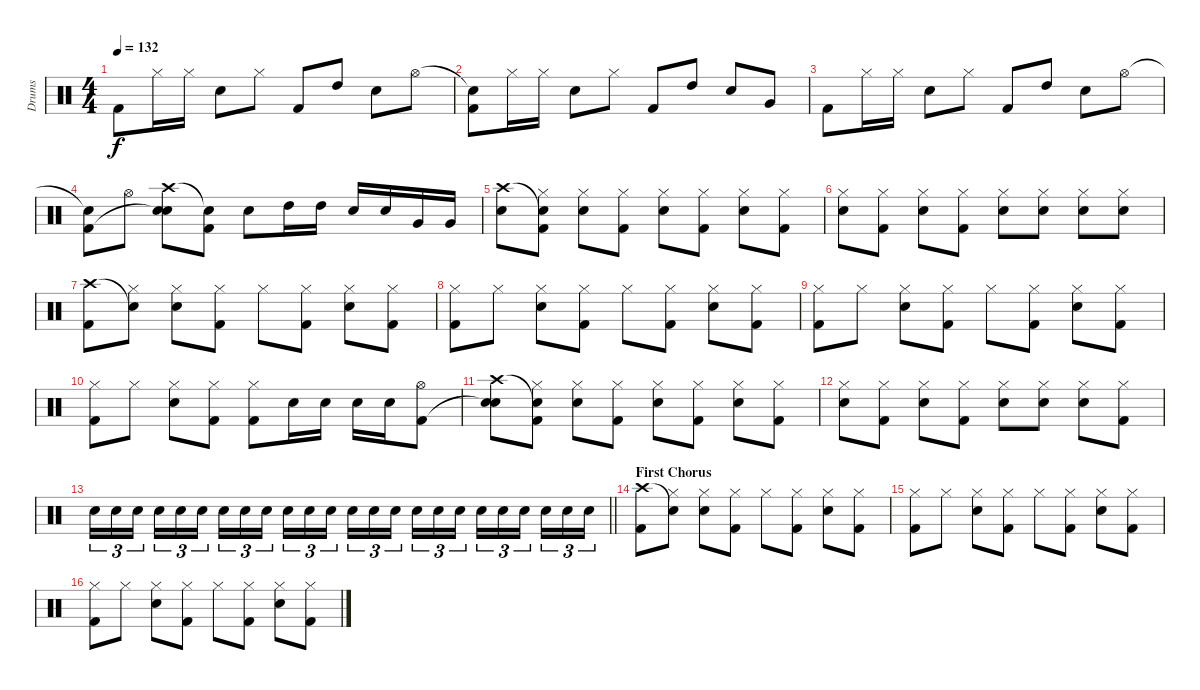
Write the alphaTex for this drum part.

\track ("Drums" "Drums") {instrument percussion}
\staff {score}
\articulation defaults
\ts (4 4)
\tempo 132
\clef neutral
\ks c "Kick (hit) 2".8{dy f} "Hi-Hat (closed)".16 "Hi-Hat (closed)".16 "Snare (hit) 2".8 "Hi-Hat (closed)".8 "Kick (hit) 2".8 "High Tom (hit)".8 "Snare (hit) 2".8 "Hi-Hat (open)".8
|
("Snare (hit)"{t} "Kick (hit) 2").8 "Hi-Hat (closed)".16 "Hi-Hat (closed)".16 "Snare (hit) 2".8 "Hi-Hat (closed)".8 "Kick (hit) 2".8 "High Tom (hit)".8 "Snare (hit) 2".8 "Very Low Tom (hit)".8 |
"Kick (hit) 2".8 "Hi-Hat (closed)".16 "Hi-Hat (closed)".16 "Snare (hit) 2".8 "Hi-Hat (closed)".8 "Kick (hit) 2".8 "High Tom (hit)".8 "Snare (hit) 2".8 "Hi-Hat (open)".8 |
("Snare (hit)"{t} "Kick (hit) 2").8 "Hi-Hat (open)".8 ("Crash high (hit)" "Snare (hit)"{t} "Snare (hit) 2").8 ("Snare (hit)"{t} "Kick (hit) 2").8 "Snare (hit) 2".8 "High Tom (hit)".16 "High Tom (hit)".16 "Snare (hit) 2".16 "Snare (hit) 2".16 "Very Low Tom (hit)".16 "Very Low Tom (hit)".16 |
("Crash high (hit)" "Snare (hit) 2").8 ("Snare (hit)"{t} "Hi-Hat (closed)" "Kick (hit) 2").8 ("Hi-Hat (closed)" "Snare (hit) 2").8 ("Hi-Hat (closed)" "Kick (hit) 2").8 ("Hi-Hat (closed)" "Snare (hit) 2").8 ("Hi-Hat (closed)" "Kick (hit) 2").8 ("Hi-Hat (closed)" "Snare (hit) 2").8 ("Hi-Hat (closed)" "Kick (hit) 2").8 |
("Hi-Hat (closed)" "Snare (hit) 2").8 ("Hi-Hat (closed)" "Kick (hit) 2").8 ("Hi-Hat (closed)" "Snare (hit) 2").8 ("Hi-Hat (closed)" "Kick (hit) 2").8 ("Hi-Hat (closed)" "Snare (hit) 2").8 ("Hi-Hat (closed)" "Snare (hit) 2").8 ("Hi-Hat (closed)" "Snare (hit) 2").8 ("Hi-Hat (closed)" "Snare (hit) 2").8 |
("Crash high (hit)" "Kick (hit) 2").8 ("Snare (hit)"{t} "Hi-Hat (closed)").8 ("Hi-Hat (closed)" "Snare (hit) 2").8 ("Hi-Hat (closed)" "Kick (hit) 2").8 "Hi-Hat (closed)".8 ("Hi-Hat (closed)" "Kick (hit) 2").8 ("Hi-Hat (closed)" "Snare (hit) 2").8 ("Hi-Hat (closed)" "Kick (hit) 2").8 |
("Hi-Hat (closed)" "Kick (hit) 2").8 "Hi-Hat (closed)".8 ("Hi-Hat (closed)" "Snare (hit) 2").8 ("Hi-Hat (closed)" "Kick (hit) 2").8 "Hi-Hat (closed)".8 ("Hi-Hat (closed)" "Kick (hit) 2").8 ("Hi-Hat (closed)" "Snare (hit) 2").8 ("Hi-Hat (closed)" "Kick (hit) 2").8 |
("Hi-Hat (closed)" "Kick (hit) 2").8 "Hi-Hat (closed)".8 ("Hi-Hat (closed)" "Snare (hit) 2").8 ("Hi-Hat (closed)" "Kick (hit) 2").8 "Hi-Hat (closed)".8 ("Hi-Hat (closed)" "Kick (hit) 2").8 ("Hi-Hat (closed)" "Snare (hit) 2").8 ("Hi-Hat (closed)" "Kick (hit) 2").8 |
("Hi-Hat (closed)" "Kick (hit) 2").8 "Hi-Hat (closed)".8 ("Hi-Hat (closed)" "Snare (hit) 2").8 ("Hi-Hat (closed)" "Kick (hit) 2").8 ("Hi-Hat (closed)" "Kick (hit) 2").8 "Snare (hit) 2".16 "Snare (hit) 2".16 "Snare (hit) 2".16 "Snare (hit) 2".16 ("Hi-Hat (open)" "Kick (hit) 2").8 |
("Crash high (hit)" "Snare (hit)"{t} "Snare (hit) 2").8 ("Snare (hit)"{t} "Hi-Hat (closed)" "Kick (hit) 2").8 ("Hi-Hat (closed)" "Snare (hit) 2").8 ("Hi-Hat (closed)" "Kick (hit) 2").8 ("Hi-Hat (closed)" "Snare (hit) 2").8 ("Hi-Hat (closed)" "Kick (hit) 2").8 ("Hi-Hat (closed)" "Snare (hit) 2").8 ("Hi-Hat (closed)" "Kick (hit) 2").8 |
("Hi-Hat (closed)" "Snare (hit) 2").8 ("Hi-Hat (closed)" "Kick (hit) 2").8 ("Hi-Hat (closed)" "Snare (hit) 2").8 ("Hi-Hat (closed)" "Kick (hit) 2").8 ("Hi-Hat (closed)" "Snare (hit) 2").8 ("Hi-Hat (closed)" "Snare (hit) 2").8 ("Hi-Hat (closed)" "Snare (hit) 2").8 ("Hi-Hat (closed)" "Kick (hit) 2").8 |
\barLineRight lightlight "Snare (hit) 2".16{tu (3 2)} "Snare (hit) 2".16{tu (3 2)} "Snare (hit) 2".16{tu (3 2) beam splitsecondary} "Snare (hit) 2".16{tu (3 2)} "Snare (hit) 2".16{tu (3 2)} "Snare (hit) 2".16{tu (3 2)} "Snare (hit) 2".16{tu (3 2)} "Snare (hit) 2".16{tu (3 2)} "Snare (hit) 2".16{tu (3 2) beam splitsecondary} "Snare (hit) 2".16{tu (3 2)} "Snare (hit) 2".16{tu (3 2)} "Snare (hit) 2".16{tu (3 2)} "Snare (hit) 2".16{tu (3 2)} "Snare (hit) 2".16{tu (3 2)} "Snare (hit) 2".16{tu (3 2) beam splitsecondary} "Snare (hit) 2".16{tu (3 2)} "Snare (hit) 2".16{tu (3 2)} "Snare (hit) 2".16{tu (3 2)} "Snare (hit) 2".16{tu (3 2)} "Snare (hit) 2".16{tu (3 2)} "Snare (hit) 2".16{tu (3 2) beam splitsecondary} "Snare (hit) 2".16{tu (3 2)} "Snare (hit) 2".16{tu (3 2)} "Snare (hit) 2".16{tu (3 2)}
|
\section ("" "First Chorus")
("Crash high (hit)" "Kick (hit) 2").8 ("Snare (hit)"{t} "Hi-Hat (closed)").8 ("Hi-Hat (closed)" "Snare (hit) 2").8 ("Hi-Hat (closed)" "Kick (hit) 2").8 "Hi-Hat (closed)".8 ("Hi-Hat (closed)" "Kick (hit) 2").8 ("Hi-Hat (closed)" "Snare (hit) 2").8 ("Hi-Hat (closed)" "Kick (hit) 2").8 |
("Hi-Hat (closed)" "Kick (hit) 2").8 "Hi-Hat (closed)".8 ("Hi-Hat (closed)" "Snare (hit) 2").8 ("Hi-Hat (closed)" "Kick (hit) 2").8 "Hi-Hat (closed)".8 ("Hi-Hat (closed)" "Kick (hit) 2").8 ("Hi-Hat (closed)" "Snare (hit) 2").8 ("Hi-Hat (closed)" "Kick (hit) 2").8 |
("Hi-Hat (closed)" "Kick (hit) 2").8 "Hi-Hat (closed)".8 ("Hi-Hat (closed)" "Snare (hit) 2").8 ("Hi-Hat (closed)" "Kick (hit) 2").8 "Hi-Hat (closed)".8 ("Hi-Hat (closed)" "Kick (hit) 2").8 ("Hi-Hat (closed)" "Snare (hit) 2").8 ("Hi-Hat (closed)" "Kick (hit) 2").8
